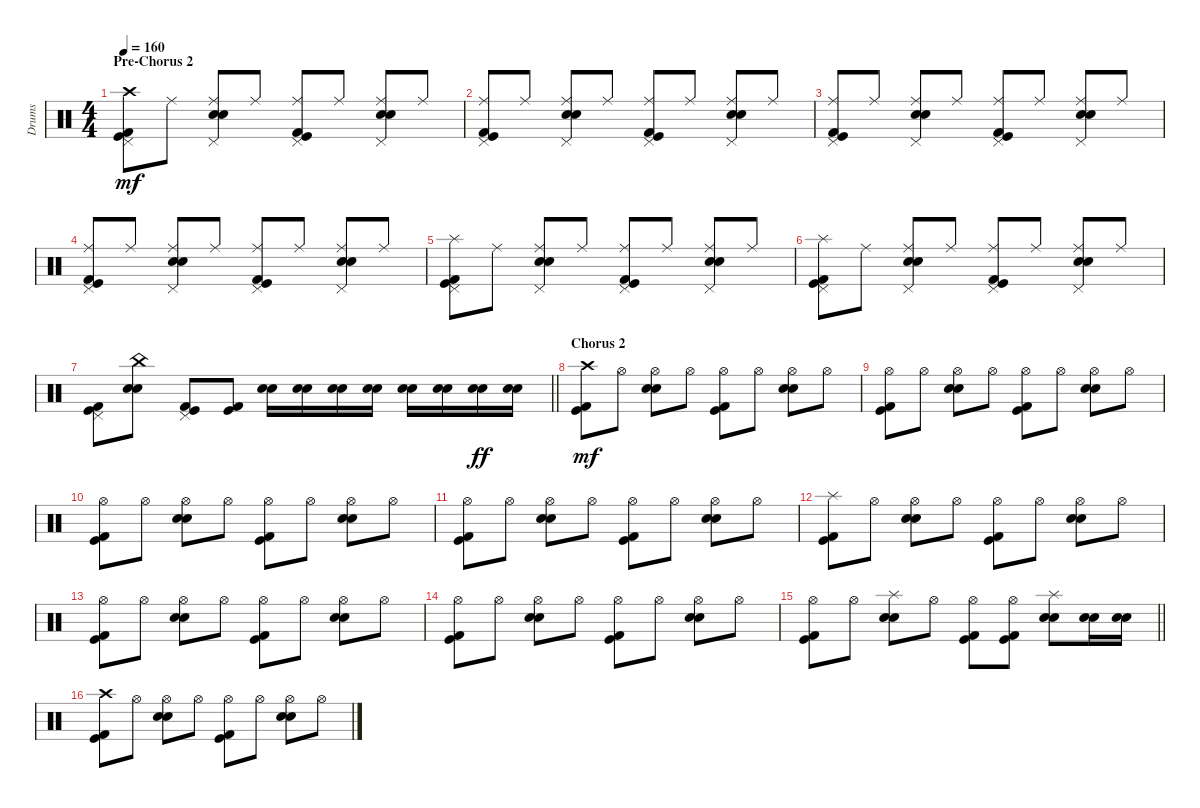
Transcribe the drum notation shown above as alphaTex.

\track ("Drums" "Drums") {instrument percussion}
\staff {score}
\articulation defaults
\ts (4 4)
\section ("" "Pre-Chorus 2")
\tempo 160
\clef neutral
\ks c
("Crash high (hit)" "Pedal Hi-Hat (hit)" "Kick (hit) 2" "Kick (hit)").8{dy mf} "Ride (middle)".8 ("Ride (middle)" "Pedal Hi-Hat (hit)" "Snare (hit) 2" "Electric Snare (hit)").8 "Ride (middle)".8 ("Ride (middle)" "Pedal Hi-Hat (hit)" "Kick (hit) 2" "Kick (hit)").8 "Ride (middle)".8 ("Ride (middle)" "Pedal Hi-Hat (hit)" "Snare (hit) 2" "Electric Snare (hit)").8 "Ride (middle)".8 |
("Ride (middle)" "Pedal Hi-Hat (hit)" "Kick (hit) 2" "Kick (hit)").8 "Ride (middle)".8 ("Ride (middle)" "Pedal Hi-Hat (hit)" "Snare (hit) 2" "Electric Snare (hit)").8 "Ride (middle)".8 ("Ride (middle)" "Pedal Hi-Hat (hit)" "Kick (hit) 2" "Kick (hit)").8 "Ride (middle)".8 ("Ride (middle)" "Pedal Hi-Hat (hit)" "Snare (hit) 2" "Electric Snare (hit)").8 "Ride (middle)".8 |
("Ride (middle)" "Pedal Hi-Hat (hit)" "Kick (hit) 2" "Kick (hit)").8 "Ride (middle)".8 ("Ride (middle)" "Pedal Hi-Hat (hit)" "Snare (hit) 2" "Electric Snare (hit)").8 "Ride (middle)".8 ("Ride (middle)" "Pedal Hi-Hat (hit)" "Kick (hit) 2" "Kick (hit)").8 "Ride (middle)".8 ("Ride (middle)" "Pedal Hi-Hat (hit)" "Snare (hit) 2" "Electric Snare (hit)").8 "Ride (middle)".8 |
("Ride (middle)" "Pedal Hi-Hat (hit)" "Kick (hit) 2" "Kick (hit)").8 "Ride (middle)".8 ("Ride (middle)" "Pedal Hi-Hat (hit)" "Snare (hit) 2" "Electric Snare (hit)").8 "Ride (middle)".8 ("Ride (middle)" "Pedal Hi-Hat (hit)" "Kick (hit) 2" "Kick (hit)").8 "Ride (middle)".8 ("Ride (middle)" "Pedal Hi-Hat (hit)" "Snare (hit) 2" "Electric Snare (hit)").8 "Ride (middle)".8 |
("Splash (hit)" "Pedal Hi-Hat (hit)" "Kick (hit) 2" "Kick (hit)").8 "Ride (middle)".8 ("Ride (middle)" "Pedal Hi-Hat (hit)" "Snare (hit) 2" "Electric Snare (hit)").8 "Ride (middle)".8 ("Ride (middle)" "Pedal Hi-Hat (hit)" "Kick (hit) 2" "Kick (hit)").8 "Ride (middle)".8 ("Ride (middle)" "Pedal Hi-Hat (hit)" "Snare (hit) 2" "Electric Snare (hit)").8 "Ride (middle)".8 |
("Splash (hit)" "Pedal Hi-Hat (hit)" "Kick (hit) 2" "Kick (hit)").8 "Ride (middle)".8 ("Ride (middle)" "Pedal Hi-Hat (hit)" "Snare (hit) 2" "Electric Snare (hit)").8 "Ride (middle)".8 ("Ride (middle)" "Pedal Hi-Hat (hit)" "Kick (hit) 2" "Kick (hit)").8 "Ride (middle)".8 ("Ride (middle)" "Pedal Hi-Hat (hit)" "Snare (hit) 2" "Electric Snare (hit)").8 "Ride (middle)".8 |
\barLineRight lightlight
("Pedal Hi-Hat (hit)" "Kick (hit) 2" "Kick (hit)").8 ("China (hit)" "Snare (hit) 2" "Electric Snare (hit)").8 ("Pedal Hi-Hat (hit)" "Kick (hit) 2" "Kick (hit)").8 ("Kick (hit) 2" "Kick (hit)").8 ("Snare (hit) 2" "Electric Snare (hit)").16 ("Snare (hit) 2" "Electric Snare (hit)").16 ("Snare (hit) 2" "Electric Snare (hit)").16 ("Snare (hit) 2" "Electric Snare (hit)").16 ("Snare (hit) 2" "Electric Snare (hit)").16 ("Snare (hit) 2" "Electric Snare (hit)").16 ("Snare (hit) 2" "Electric Snare (hit)").16{dy ff} ("Snare (hit) 2" "Electric Snare (hit)").16 |
\section ("" "Chorus 2")
("Crash high (hit)" "Kick (hit) 2" "Kick (hit)").8{dy mf} "Hi-Hat (open)".8 ("Hi-Hat (open)" "Snare (hit) 2" "Electric Snare (hit)").8 "Hi-Hat (open)".8 ("Hi-Hat (open)" "Kick (hit) 2" "Kick (hit)").8 "Hi-Hat (open)".8 ("Hi-Hat (open)" "Snare (hit) 2" "Electric Snare (hit)").8 "Hi-Hat (open)".8 |
("Hi-Hat (open)" "Kick (hit) 2" "Kick (hit)").8 "Hi-Hat (open)".8 ("Hi-Hat (open)" "Snare (hit) 2" "Electric Snare (hit)").8 "Hi-Hat (open)".8 ("Hi-Hat (open)" "Kick (hit) 2" "Kick (hit)").8 "Hi-Hat (open)".8 ("Hi-Hat (open)" "Snare (hit) 2" "Electric Snare (hit)").8 "Hi-Hat (open)".8 |
("Hi-Hat (open)" "Kick (hit) 2" "Kick (hit)").8 "Hi-Hat (open)".8 ("Hi-Hat (open)" "Snare (hit) 2" "Electric Snare (hit)").8 "Hi-Hat (open)".8 ("Hi-Hat (open)" "Kick (hit) 2" "Kick (hit)").8 "Hi-Hat (open)".8 ("Hi-Hat (open)" "Snare (hit) 2" "Electric Snare (hit)").8 "Hi-Hat (open)".8 |
("Hi-Hat (open)" "Kick (hit) 2" "Kick (hit)").8 "Hi-Hat (open)".8 ("Hi-Hat (open)" "Snare (hit) 2" "Electric Snare (hit)").8 "Hi-Hat (open)".8 ("Hi-Hat (open)" "Kick (hit) 2" "Kick (hit)").8 "Hi-Hat (open)".8 ("Hi-Hat (open)" "Snare (hit) 2" "Electric Snare (hit)").8 "Hi-Hat (open)".8 |
("Splash (hit)" "Kick (hit) 2" "Kick (hit)").8 "Hi-Hat (open)".8 ("Hi-Hat (open)" "Snare (hit) 2" "Electric Snare (hit)").8 "Hi-Hat (open)".8 ("Hi-Hat (open)" "Kick (hit) 2" "Kick (hit)").8 "Hi-Hat (open)".8 ("Hi-Hat (open)" "Snare (hit) 2" "Electric Snare (hit)").8 "Hi-Hat (open)".8 |
("Hi-Hat (open)" "Kick (hit) 2" "Kick (hit)").8 "Hi-Hat (open)".8 ("Hi-Hat (open)" "Snare (hit) 2" "Electric Snare (hit)").8 "Hi-Hat (open)".8 ("Hi-Hat (open)" "Kick (hit) 2" "Kick (hit)").8 "Hi-Hat (open)".8 ("Hi-Hat (open)" "Snare (hit) 2" "Electric Snare (hit)").8 "Hi-Hat (open)".8 |
("Hi-Hat (open)" "Kick (hit) 2" "Kick (hit)").8 "Hi-Hat (open)".8 ("Hi-Hat (open)" "Snare (hit) 2" "Electric Snare (hit)").8 "Hi-Hat (open)".8 ("Hi-Hat (open)" "Kick (hit) 2" "Kick (hit)").8 "Hi-Hat (open)".8 ("Hi-Hat (open)" "Snare (hit) 2" "Electric Snare (hit)").8 "Hi-Hat (open)".8 |
\barLineRight lightlight
("Hi-Hat (open)" "Kick (hit) 2" "Kick (hit)").8 "Hi-Hat (open)".8 ("Splash (hit)" "Snare (hit) 2" "Electric Snare (hit)").8 "Hi-Hat (open)".8 ("Hi-Hat (open)" "Kick (hit) 2" "Kick (hit)").8 ("Hi-Hat (open)" "Kick (hit) 2" "Kick (hit)").8 ("Splash (hit)" "Snare (hit) 2" "Electric Snare (hit)").8 ("Snare (hit) 2" "Electric Snare (hit)").16 ("Snare (hit) 2" "Electric Snare (hit)").16 |
("Crash high (hit)" "Kick (hit) 2" "Kick (hit)").8 "Hi-Hat (open)".8 ("Hi-Hat (open)" "Snare (hit) 2" "Electric Snare (hit)").8 "Hi-Hat (open)".8 ("Hi-Hat (open)" "Kick (hit) 2" "Kick (hit)").8 "Hi-Hat (open)".8 ("Hi-Hat (open)" "Snare (hit) 2" "Electric Snare (hit)").8 "Hi-Hat (open)".8
